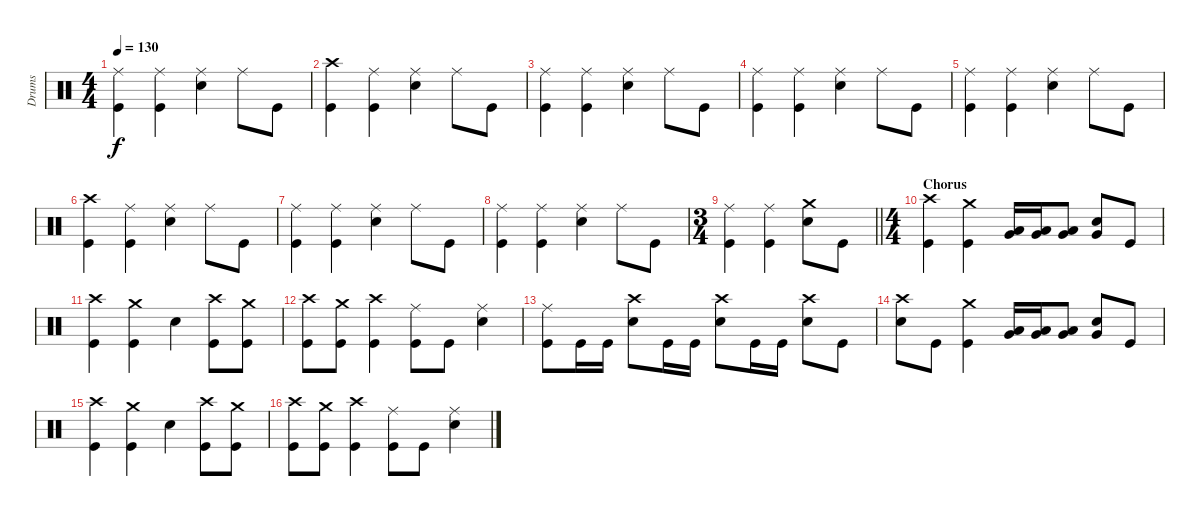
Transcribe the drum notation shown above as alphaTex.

\track ("Drums" "Drums") {instrument percussion}
\staff {score}
\articulation defaults
\ts (4 4)
\tempo 130
\clef neutral
\ks c
("Ride (middle)" "Kick (hit)").4{dy f} ("Ride (middle)" "Kick (hit)").4 ("Ride (middle)" "Snare (hit) 2").4 "Ride (middle)".8 "Kick (hit)".8 |
("Crash high (hit)" "Kick (hit)").4 ("Ride (middle)" "Kick (hit)").4 ("Ride (middle)" "Snare (hit) 2").4 "Ride (middle)".8 "Kick (hit)".8 |
("Ride (middle)" "Kick (hit)").4 ("Ride (middle)" "Kick (hit)").4 ("Ride (middle)" "Snare (hit) 2").4 "Ride (middle)".8 "Kick (hit)".8 |
("Ride (middle)" "Kick (hit)").4 ("Ride (middle)" "Kick (hit)").4 ("Ride (middle)" "Snare (hit) 2").4 "Ride (middle)".8 "Kick (hit)".8 |
("Ride (middle)" "Kick (hit)").4 ("Ride (middle)" "Kick (hit)").4 ("Ride (middle)" "Snare (hit) 2").4 "Ride (middle)".8 "Kick (hit)".8 |
("Crash high (hit)" "Kick (hit)").4 ("Ride (middle)" "Kick (hit)").4 ("Ride (middle)" "Snare (hit) 2").4 "Ride (middle)".8 "Kick (hit)".8 |
("Ride (middle)" "Kick (hit)").4 ("Ride (middle)" "Kick (hit)").4 ("Ride (middle)" "Snare (hit) 2").4 "Ride (middle)".8 "Kick (hit)".8 |
("Ride (middle)" "Kick (hit)").4 ("Ride (middle)" "Kick (hit)").4 ("Ride (middle)" "Snare (hit) 2").4 "Ride (middle)".8 "Kick (hit)".8 |
\ts (3 4)
\barLineRight lightlight
("Ride (middle)" "Kick (hit)").4 ("Ride (middle)" "Kick (hit)").4 ("Crash medium (hit)" "Snare (hit) 2").8 "Kick (hit)".8 |
\ts (4 4)
\section ("" "Chorus")
("Crash high (hit)" "Kick (hit)").4 ("Crash medium (hit)" "Kick (hit)").4 ("Low Tom (hit)" "Very Low Tom (hit)").16 ("Low Tom (hit)" "Very Low Tom (hit)").16 ("Low Tom (hit)" "Very Low Tom (hit)").8 ("Snare (hit) 2" "Very Low Tom (hit)").8 "Kick (hit)".8 |
("Crash high (hit)" "Kick (hit)").4 ("Crash medium (hit)" "Kick (hit)").4 "Snare (hit) 2".4 ("Crash high (hit)" "Kick (hit)").8 ("Crash medium (hit)" "Kick (hit)").8 |
("Crash high (hit)" "Kick (hit)").8 ("Crash medium (hit)" "Kick (hit)").8 ("Crash high (hit)" "Kick (hit)").4 ("Ride (middle)" "Kick (hit)").8 "Kick (hit)".8 ("Ride (middle)" "Snare (hit) 2").4 |
("Ride (middle)" "Kick (hit)").8 "Kick (hit)".16 "Kick (hit)".16 ("Crash high (hit)" "Snare (hit) 2").8 "Kick (hit)".16 "Kick (hit)".16 ("Crash high (hit)" "Snare (hit) 2").8 "Kick (hit)".16 "Kick (hit)".16 ("Crash high (hit)" "Snare (hit) 2").8 "Kick (hit)".8 |
("Crash high (hit)" "Snare (hit) 2").8 "Kick (hit)".8 ("Crash medium (hit)" "Kick (hit)").4 ("Low Tom (hit)" "Very Low Tom (hit)").16 ("Low Tom (hit)" "Very Low Tom (hit)").16 ("Low Tom (hit)" "Very Low Tom (hit)").8 ("Snare (hit) 2" "Very Low Tom (hit)").8 "Kick (hit)".8 |
("Crash high (hit)" "Kick (hit)").4 ("Crash medium (hit)" "Kick (hit)").4 "Snare (hit) 2".4 ("Crash high (hit)" "Kick (hit)").8 ("Crash medium (hit)" "Kick (hit)").8 |
("Crash high (hit)" "Kick (hit)").8 ("Crash medium (hit)" "Kick (hit)").8 ("Crash high (hit)" "Kick (hit)").4 ("Ride (middle)" "Kick (hit)").8 "Kick (hit)".8 ("Ride (middle)" "Snare (hit) 2").4
